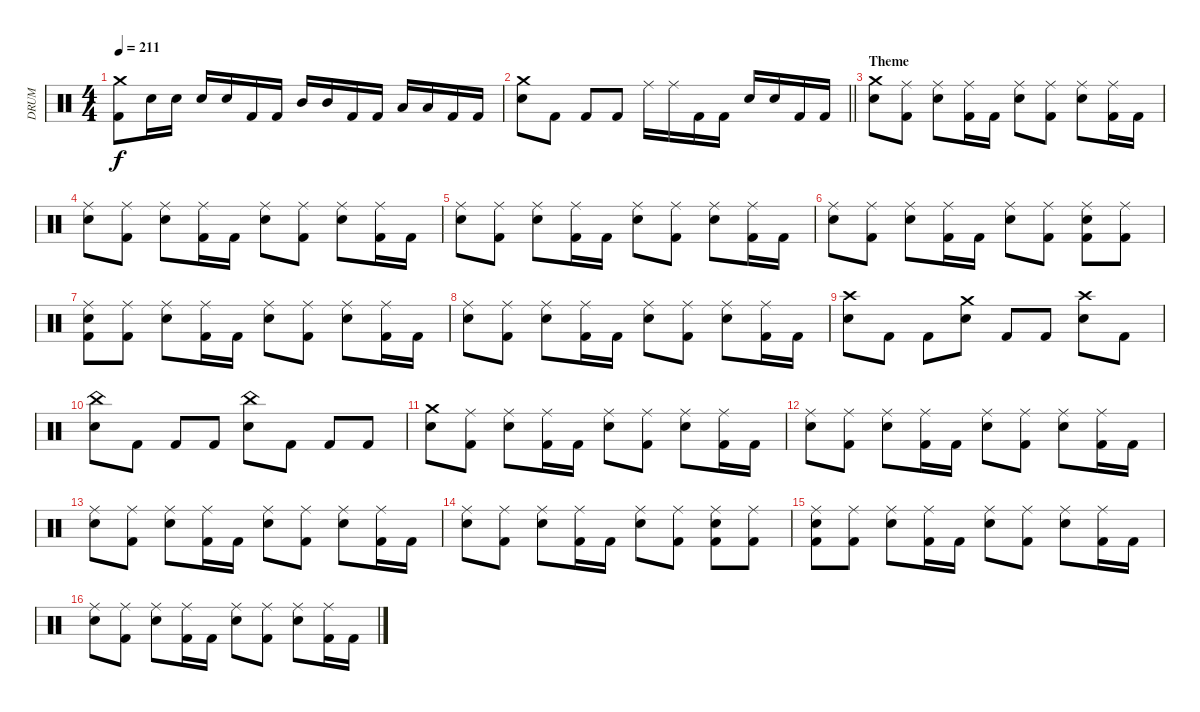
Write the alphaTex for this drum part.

\track ("DRUM" "DRUM") {instrument percussion bank 102}
\staff {score}
\articulation defaults
\ts (4 4)
\tempo 211
\clef neutral
\ks c
("Crash medium (hit)" "Kick (hit) 2").8{dy f} "Electric Snare (hit)".16 "Electric Snare (hit)".16 "Electric Snare (hit)".16 "Electric Snare (hit)".16 "Kick (hit) 2".16 "Kick (hit) 2".16 "Mid Tom (hit)".16 "Mid Tom (hit)".16 "Kick (hit) 2".16 "Kick (hit) 2".16 "Low Tom (hit)".16 "Low Tom (hit)".16 "Kick (hit) 2".16 "Kick (hit) 2".16 |
\barLineRight lightlight
("Crash medium (hit)" "Electric Snare (hit)").8 "Kick (hit) 2".8 "Kick (hit) 2".8 "Kick (hit) 2".8 "Ride (middle)".16 "Ride (middle)".16 "Kick (hit) 2".16 "Kick (hit) 2".16 "Electric Snare (hit)".16 "Electric Snare (hit)".16 "Kick (hit) 2".16 "Kick (hit) 2".16 |
\section ("" "Theme")
("Crash medium (hit)" "Electric Snare (hit)").8 ("Ride (middle)" "Kick (hit) 2").8 ("Ride (middle)" "Electric Snare (hit)").8 ("Ride (middle)" "Kick (hit) 2").16 "Kick (hit) 2".16 ("Ride (middle)" "Electric Snare (hit)").8 ("Ride (middle)" "Kick (hit) 2").8 ("Ride (middle)" "Electric Snare (hit)").8 ("Ride (middle)" "Kick (hit) 2").16 "Kick (hit) 2".16 |
("Ride (middle)" "Electric Snare (hit)").8 ("Ride (middle)" "Kick (hit) 2").8 ("Ride (middle)" "Electric Snare (hit)").8 ("Ride (middle)" "Kick (hit) 2").16 "Kick (hit) 2".16 ("Ride (middle)" "Electric Snare (hit)").8 ("Ride (middle)" "Kick (hit) 2").8 ("Ride (middle)" "Electric Snare (hit)").8 ("Ride (middle)" "Kick (hit) 2").16 "Kick (hit) 2".16 |
("Ride (middle)" "Electric Snare (hit)").8 ("Ride (middle)" "Kick (hit) 2").8 ("Ride (middle)" "Electric Snare (hit)").8 ("Ride (middle)" "Kick (hit) 2").16 "Kick (hit) 2".16 ("Ride (middle)" "Electric Snare (hit)").8 ("Ride (middle)" "Kick (hit) 2").8 ("Ride (middle)" "Electric Snare (hit)").8 ("Ride (middle)" "Kick (hit) 2").16 "Kick (hit) 2".16 |
("Ride (middle)" "Electric Snare (hit)").8 ("Ride (middle)" "Kick (hit) 2").8 ("Ride (middle)" "Electric Snare (hit)").8 ("Ride (middle)" "Kick (hit) 2").16 "Kick (hit) 2".16 ("Ride (middle)" "Electric Snare (hit)").8 ("Ride (middle)" "Kick (hit) 2").8 ("Ride (middle)" "Electric Snare (hit)" "Kick (hit) 2").8 ("Ride (middle)" "Kick (hit) 2").8 |
("Ride (middle)" "Electric Snare (hit)" "Kick (hit) 2").8 ("Ride (middle)" "Kick (hit) 2").8 ("Ride (middle)" "Electric Snare (hit)").8 ("Ride (middle)" "Kick (hit) 2").16 "Kick (hit) 2".16 ("Ride (middle)" "Electric Snare (hit)").8 ("Ride (middle)" "Kick (hit) 2").8 ("Ride (middle)" "Electric Snare (hit)").8 ("Ride (middle)" "Kick (hit) 2").16 "Kick (hit) 2".16 |
("Ride (middle)" "Electric Snare (hit)").8 ("Ride (middle)" "Kick (hit) 2").8 ("Ride (middle)" "Electric Snare (hit)").8 ("Ride (middle)" "Kick (hit) 2").16 "Kick (hit) 2".16 ("Ride (middle)" "Electric Snare (hit)").8 ("Ride (middle)" "Kick (hit) 2").8 ("Ride (middle)" "Electric Snare (hit)").8 ("Ride (middle)" "Kick (hit) 2").16 "Kick (hit) 2".16 |
("Crash high (hit)" "Electric Snare (hit)").8 "Kick (hit) 2".8 "Kick (hit) 2".8 ("Crash medium (hit)" "Electric Snare (hit)").8 "Kick (hit) 2".8 "Kick (hit) 2".8 ("Crash high (hit)" "Electric Snare (hit)").8 "Kick (hit) 2".8 |
("China (hit)" "Electric Snare (hit)").8 "Kick (hit) 2".8 "Kick (hit) 2".8 "Kick (hit) 2".8 ("China (hit)" "Electric Snare (hit)").8 "Kick (hit) 2".8 "Kick (hit) 2".8 "Kick (hit) 2".8 |
("Crash medium (hit)" "Electric Snare (hit)").8 ("Ride (middle)" "Kick (hit) 2").8 ("Ride (middle)" "Electric Snare (hit)").8 ("Ride (middle)" "Kick (hit) 2").16 "Kick (hit) 2".16 ("Ride (middle)" "Electric Snare (hit)").8 ("Ride (middle)" "Kick (hit) 2").8 ("Ride (middle)" "Electric Snare (hit)").8 ("Ride (middle)" "Kick (hit) 2").16 "Kick (hit) 2".16 |
("Ride (middle)" "Electric Snare (hit)").8 ("Ride (middle)" "Kick (hit) 2").8 ("Ride (middle)" "Electric Snare (hit)").8 ("Ride (middle)" "Kick (hit) 2").16 "Kick (hit) 2".16 ("Ride (middle)" "Electric Snare (hit)").8 ("Ride (middle)" "Kick (hit) 2").8 ("Ride (middle)" "Electric Snare (hit)").8 ("Ride (middle)" "Kick (hit) 2").16 "Kick (hit) 2".16 |
("Ride (middle)" "Electric Snare (hit)").8 ("Ride (middle)" "Kick (hit) 2").8 ("Ride (middle)" "Electric Snare (hit)").8 ("Ride (middle)" "Kick (hit) 2").16 "Kick (hit) 2".16 ("Ride (middle)" "Electric Snare (hit)").8 ("Ride (middle)" "Kick (hit) 2").8 ("Ride (middle)" "Electric Snare (hit)").8 ("Ride (middle)" "Kick (hit) 2").16 "Kick (hit) 2".16 |
("Ride (middle)" "Electric Snare (hit)").8 ("Ride (middle)" "Kick (hit) 2").8 ("Ride (middle)" "Electric Snare (hit)").8 ("Ride (middle)" "Kick (hit) 2").16 "Kick (hit) 2".16 ("Ride (middle)" "Electric Snare (hit)").8 ("Ride (middle)" "Kick (hit) 2").8 ("Ride (middle)" "Electric Snare (hit)" "Kick (hit) 2").8 ("Ride (middle)" "Kick (hit) 2").8 |
("Ride (middle)" "Electric Snare (hit)" "Kick (hit) 2").8 ("Ride (middle)" "Kick (hit) 2").8 ("Ride (middle)" "Electric Snare (hit)").8 ("Ride (middle)" "Kick (hit) 2").16 "Kick (hit) 2".16 ("Ride (middle)" "Electric Snare (hit)").8 ("Ride (middle)" "Kick (hit) 2").8 ("Ride (middle)" "Electric Snare (hit)").8 ("Ride (middle)" "Kick (hit) 2").16 "Kick (hit) 2".16 |
("Ride (middle)" "Electric Snare (hit)").8 ("Ride (middle)" "Kick (hit) 2").8 ("Ride (middle)" "Electric Snare (hit)").8 ("Ride (middle)" "Kick (hit) 2").16 "Kick (hit) 2".16 ("Ride (middle)" "Electric Snare (hit)").8 ("Ride (middle)" "Kick (hit) 2").8 ("Ride (middle)" "Electric Snare (hit)").8 ("Ride (middle)" "Kick (hit) 2").16 "Kick (hit) 2".16
